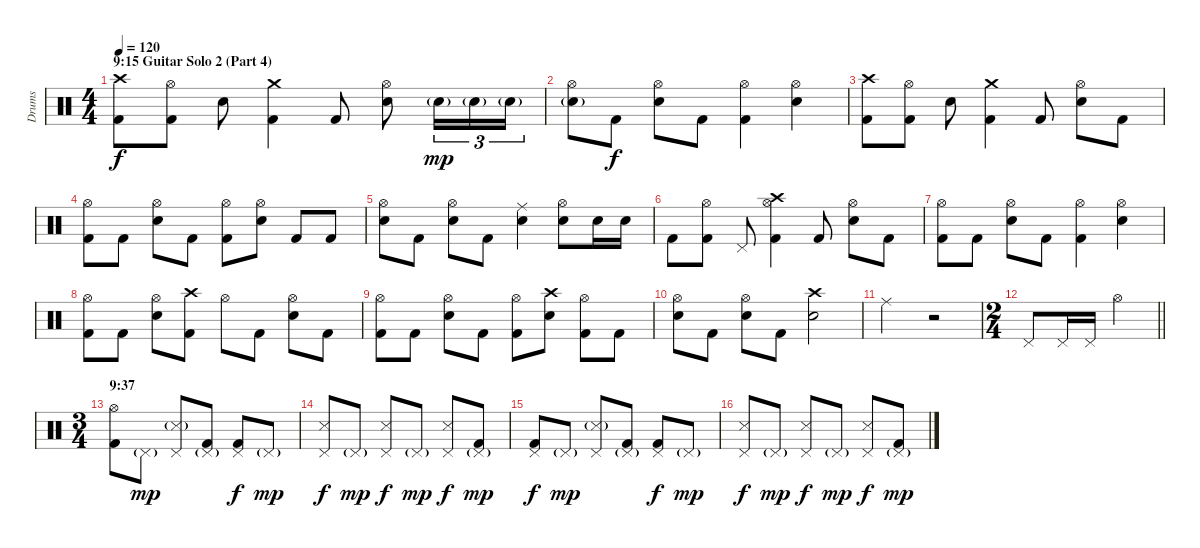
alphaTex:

\track ("Drums" "Drums") {instrument percussion}
\staff {score}
\articulation defaults
\ts (4 4)
\section ("" "9:15 Guitar Solo 2 (Part 4)")
\tempo 120
\clef neutral
\ks c
("Crash high (hit)" "Kick (hit) 2").8{dy f} ("Hi-Hat (open)" "Kick (hit) 2").8 "Snare (hit) 2".8 ("Crash medium (hit)" "Kick (hit) 2").4 "Kick (hit) 2".8 ("Hi-Hat (open)" "Snare (hit) 2").8 "Snare (hit) 2"{g}.16{tu (3 2) dy mp} "Snare (hit) 2"{g}.16{tu (3 2)} "Snare (hit) 2"{g}.16{tu (3 2)} |
("Hi-Hat (open)" "Snare (hit) 2"{g}).8 "Kick (hit) 2".8{dy f} ("Hi-Hat (open)" "Snare (hit) 2").8 "Kick (hit) 2".8 ("Hi-Hat (open)" "Kick (hit) 2").4 ("Hi-Hat (open)" "Snare (hit) 2").4 |
("Crash high (hit)" "Kick (hit) 2").8 ("Hi-Hat (open)" "Kick (hit) 2").8 "Snare (hit) 2".8 ("Crash medium (hit)" "Kick (hit) 2").4 "Kick (hit) 2".8 ("Hi-Hat (open)" "Snare (hit) 2").8 "Kick (hit) 2".8 |
("Hi-Hat (open)" "Kick (hit) 2").8 "Kick (hit) 2".8 ("Hi-Hat (open)" "Snare (hit) 2").8 "Kick (hit) 2".8 ("Hi-Hat (open)" "Kick (hit) 2").8 ("Hi-Hat (open)" "Snare (hit) 2").8 "Kick (hit) 2".8 "Kick (hit) 2".8 |
("Hi-Hat (open)" "Snare (hit) 2").8 "Kick (hit) 2".8 ("Hi-Hat (open)" "Snare (hit) 2").8 "Kick (hit) 2".8 ("Ride (middle)" "Snare (hit) 2").4 ("Hi-Hat (open)" "Snare (hit) 2").8 "Snare (hit) 2".16 "Snare (hit) 2".16 |
"Kick (hit) 2".8 ("Hi-Hat (open)" "Kick (hit) 2").8 "Pedal Hi-Hat (hit)".8 ("Crash high (hit)" "Hi-Hat (open)" "Kick (hit) 2").4 "Kick (hit) 2".8 ("Hi-Hat (open)" "Snare (hit) 2").8 "Kick (hit) 2".8 |
("Hi-Hat (open)" "Kick (hit) 2").8 "Kick (hit) 2".8 ("Hi-Hat (open)" "Snare (hit) 2").8 "Kick (hit) 2".8 ("Hi-Hat (open)" "Kick (hit) 2").4 ("Hi-Hat (open)" "Snare (hit) 2").4 |
("Hi-Hat (open)" "Kick (hit) 2").8 "Kick (hit) 2".8 ("Hi-Hat (open)" "Snare (hit) 2").8 ("Crash high (hit)" "Kick (hit) 2").8 "Hi-Hat (open)".8 "Kick (hit) 2".8 ("Hi-Hat (open)" "Snare (hit) 2").8 "Kick (hit) 2".8 |
("Hi-Hat (open)" "Kick (hit) 2").8 "Kick (hit) 2".8 ("Hi-Hat (open)" "Snare (hit) 2").8 "Kick (hit) 2".8 ("Hi-Hat (open)" "Kick (hit) 2").8 ("Crash high (hit)" "Snare (hit) 2").8 ("Hi-Hat (open)" "Kick (hit) 2").8 "Kick (hit) 2".8 |
("Hi-Hat (open)" "Snare (hit) 2").8 "Kick (hit) 2".8 ("Hi-Hat (open)" "Snare (hit) 2").8 "Kick (hit) 2".8 ("Crash high (hit)" "Snare (hit) 2").2 |
"Ride (middle)".2 r.2 |
\ts (2 4)
\barLineRight lightlight "Pedal Hi-Hat (hit)".8 "Pedal Hi-Hat (hit)".16 "Pedal Hi-Hat (hit)".16 "Hi-Hat (open)".4
|
\ts (3 4)
\section ("" "9:37")
("Hi-Hat (open)" "Kick (hit) 2").8 "Pedal Hi-Hat (hit)"{g}.8{dy mp} ("Pedal Hi-Hat (hit)" "Snare (side stick) 3"{g}).8 ("Pedal Hi-Hat (hit)"{g} "Kick (hit) 2").8 ("Pedal Hi-Hat (hit)" "Kick (hit) 2").8{dy f} "Pedal Hi-Hat (hit)"{g}.8{dy mp} |
("Pedal Hi-Hat (hit)" "Snare (side stick) 3").8{dy f} "Pedal Hi-Hat (hit)"{g}.8{dy mp} ("Pedal Hi-Hat (hit)" "Snare (side stick) 3").8{dy f} "Pedal Hi-Hat (hit)"{g}.8{dy mp} ("Pedal Hi-Hat (hit)" "Snare (side stick) 3").8{dy f} ("Pedal Hi-Hat (hit)"{g} "Kick (hit) 2").8{dy mp} |
("Pedal Hi-Hat (hit)" "Kick (hit) 2").8{dy f} "Pedal Hi-Hat (hit)"{g}.8{dy mp} ("Pedal Hi-Hat (hit)" "Snare (side stick) 3"{g}).8 ("Pedal Hi-Hat (hit)"{g} "Kick (hit) 2").8 ("Pedal Hi-Hat (hit)" "Kick (hit) 2").8{dy f} "Pedal Hi-Hat (hit)"{g}.8{dy mp} |
("Pedal Hi-Hat (hit)" "Snare (side stick) 3").8{dy f} "Pedal Hi-Hat (hit)"{g}.8{dy mp} ("Pedal Hi-Hat (hit)" "Snare (side stick) 3").8{dy f} "Pedal Hi-Hat (hit)"{g}.8{dy mp} ("Pedal Hi-Hat (hit)" "Snare (side stick) 3").8{dy f} ("Pedal Hi-Hat (hit)"{g} "Kick (hit) 2").8{dy mp}
